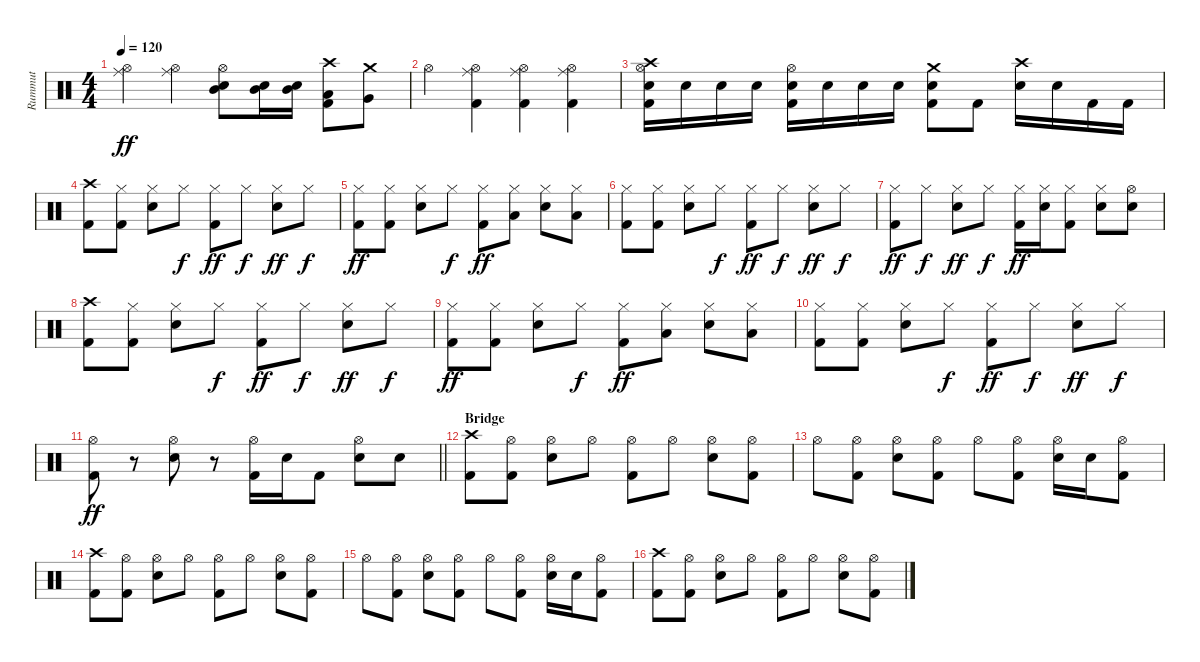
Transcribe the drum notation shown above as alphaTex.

\track ("Rummut" "Rummut") {instrument percussion}
\staff {score}
\articulation defaults
\ts (4 4)
\tempo 120
\clef neutral
\ks c
("Ride (middle)" "Hi-Hat (open)").4{dy ff} ("Ride (middle)" "Hi-Hat (open)").4 ("Mid Tom (hit)" "Snare (hit) 2" "Hi-Hat (open)").8 ("Mid Tom (hit)" "Snare (hit) 2").16 ("Mid Tom (hit)" "Snare (hit) 2").16 ("Low Tom (hit)" "Crash high (hit)" "Kick (hit) 2").8 ("Crash medium (hit)" "Very Low Tom (hit)").8 |
"Hi-Hat (open)".4 ("Ride (middle)" "Hi-Hat (open)" "Kick (hit) 2").4 ("Ride (middle)" "Hi-Hat (open)" "Kick (hit) 2").4 ("Ride (middle)" "Hi-Hat (open)" "Kick (hit) 2").4 |
("Crash high (hit)" "Snare (hit) 2" "Hi-Hat (open)" "Kick (hit) 2").16 "Snare (hit) 2".16 "Snare (hit) 2".16 "Snare (hit) 2".16 ("Snare (hit) 2" "Hi-Hat (open)" "Kick (hit) 2").16 "Snare (hit) 2".16 "Snare (hit) 2".16 "Snare (hit) 2".16 ("Crash medium (hit)" "Snare (hit) 2" "Kick (hit) 2").8 "Kick (hit) 2".8 ("Crash high (hit)" "Snare (hit) 2").16 "Snare (hit) 2".16 "Kick (hit) 2".16 "Kick (hit) 2".16 |
("Crash high (hit)" "Kick (hit) 2").8 ("Hi-Hat (closed)" "Kick (hit) 2").8 ("Hi-Hat (closed)" "Snare (hit) 2").8 "Hi-Hat (closed)".8{dy f} ("Hi-Hat (closed)" "Kick (hit) 2").8{dy ff} "Hi-Hat (closed)".8{dy f} ("Hi-Hat (closed)" "Snare (hit) 2").8{dy ff} "Hi-Hat (closed)".8{dy f} |
("Hi-Hat (closed)" "Kick (hit) 2").8{dy ff} ("Hi-Hat (closed)" "Kick (hit) 2").8 ("Hi-Hat (closed)" "Snare (hit) 2").8 "Hi-Hat (closed)".8{dy f} ("Hi-Hat (closed)" "Kick (hit) 2").8{dy ff} ("Hi-Hat (closed)" "Low Tom (hit)").8 ("Hi-Hat (closed)" "Snare (hit) 2").8 ("Hi-Hat (closed)" "Low Floor Tom (hit)").8 |
("Hi-Hat (closed)" "Kick (hit) 2").8 ("Hi-Hat (closed)" "Kick (hit) 2").8 ("Hi-Hat (closed)" "Snare (hit) 2").8 "Hi-Hat (closed)".8{dy f} ("Hi-Hat (closed)" "Kick (hit) 2").8{dy ff} "Hi-Hat (closed)".8{dy f} ("Hi-Hat (closed)" "Snare (hit) 2").8{dy ff} "Hi-Hat (closed)".8{dy f} |
("Hi-Hat (closed)" "Kick (hit) 2").8{dy ff} "Hi-Hat (closed)".8{dy f} ("Hi-Hat (closed)" "Snare (hit) 2").8{dy ff} "Hi-Hat (closed)".8{dy f} ("Hi-Hat (closed)" "Kick (hit) 2").16{dy ff} ("Hi-Hat (closed)" "Snare (hit) 2").16 ("Hi-Hat (closed)" "Kick (hit) 2").8 ("Hi-Hat (closed)" "Snare (hit) 2").8 ("Hi-Hat (open)" "Snare (hit) 2").8 |
("Crash high (hit)" "Kick (hit) 2").8 ("Hi-Hat (closed)" "Kick (hit) 2").8 ("Hi-Hat (closed)" "Snare (hit) 2").8 "Hi-Hat (closed)".8{dy f} ("Hi-Hat (closed)" "Kick (hit) 2").8{dy ff} "Hi-Hat (closed)".8{dy f} ("Hi-Hat (closed)" "Snare (hit) 2").8{dy ff} "Hi-Hat (closed)".8{dy f} |
("Hi-Hat (closed)" "Kick (hit) 2").8{dy ff} ("Hi-Hat (closed)" "Kick (hit) 2").8 ("Hi-Hat (closed)" "Snare (hit) 2").8 "Hi-Hat (closed)".8{dy f} ("Hi-Hat (closed)" "Kick (hit) 2").8{dy ff} ("Hi-Hat (closed)" "Low Tom (hit)").8 ("Hi-Hat (closed)" "Snare (hit) 2").8 ("Hi-Hat (closed)" "Low Floor Tom (hit)").8 |
("Hi-Hat (closed)" "Kick (hit) 2").8 ("Hi-Hat (closed)" "Kick (hit) 2").8 ("Hi-Hat (closed)" "Snare (hit) 2").8 "Hi-Hat (closed)".8{dy f} ("Hi-Hat (closed)" "Kick (hit) 2").8{dy ff} "Hi-Hat (closed)".8{dy f} ("Hi-Hat (closed)" "Snare (hit) 2").8{dy ff} "Hi-Hat (closed)".8{dy f} |
\barLineRight lightlight
("Hi-Hat (open)" "Kick (hit) 2").8{dy ff} r.8 ("Hi-Hat (open)" "Snare (hit) 2").8 r.8 ("Hi-Hat (open)" "Kick (hit) 2").16 "Snare (hit) 2".16 "Kick (hit) 2".8 ("Hi-Hat (open)" "Snare (hit) 2").8 "Snare (hit) 2".8 |
\section ("" "Bridge")
("Crash high (hit)" "Kick (hit) 2").8 ("Hi-Hat (open)" "Kick (hit) 2").8 ("Hi-Hat (open)" "Snare (hit) 2").8 "Hi-Hat (open)".8 ("Hi-Hat (open)" "Kick (hit) 2").8 "Hi-Hat (open)".8 ("Hi-Hat (open)" "Snare (hit) 2").8 ("Hi-Hat (open)" "Kick (hit) 2").8 |
"Hi-Hat (open)".8 ("Hi-Hat (open)" "Kick (hit) 2").8 ("Hi-Hat (open)" "Snare (hit) 2").8 ("Hi-Hat (open)" "Kick (hit) 2").8 "Hi-Hat (open)".8 ("Hi-Hat (open)" "Kick (hit) 2").8 ("Hi-Hat (open)" "Snare (hit) 2").16 "Snare (hit) 2".16 ("Hi-Hat (open)" "Kick (hit) 2").8 |
("Crash high (hit)" "Kick (hit) 2").8 ("Hi-Hat (open)" "Kick (hit) 2").8 ("Hi-Hat (open)" "Snare (hit) 2").8 "Hi-Hat (open)".8 ("Hi-Hat (open)" "Kick (hit) 2").8 "Hi-Hat (open)".8 ("Hi-Hat (open)" "Snare (hit) 2").8 ("Hi-Hat (open)" "Kick (hit) 2").8 |
"Hi-Hat (open)".8 ("Hi-Hat (open)" "Kick (hit) 2").8 ("Hi-Hat (open)" "Snare (hit) 2").8 ("Hi-Hat (open)" "Kick (hit) 2").8 "Hi-Hat (open)".8 ("Hi-Hat (open)" "Kick (hit) 2").8 ("Hi-Hat (open)" "Snare (hit) 2").16 "Snare (hit) 2".16 ("Hi-Hat (open)" "Kick (hit) 2").8 |
("Crash high (hit)" "Kick (hit) 2").8 ("Hi-Hat (open)" "Kick (hit) 2").8 ("Hi-Hat (open)" "Snare (hit) 2").8 "Hi-Hat (open)".8 ("Hi-Hat (open)" "Kick (hit) 2").8 "Hi-Hat (open)".8 ("Hi-Hat (open)" "Snare (hit) 2").8 ("Hi-Hat (open)" "Kick (hit) 2").8
